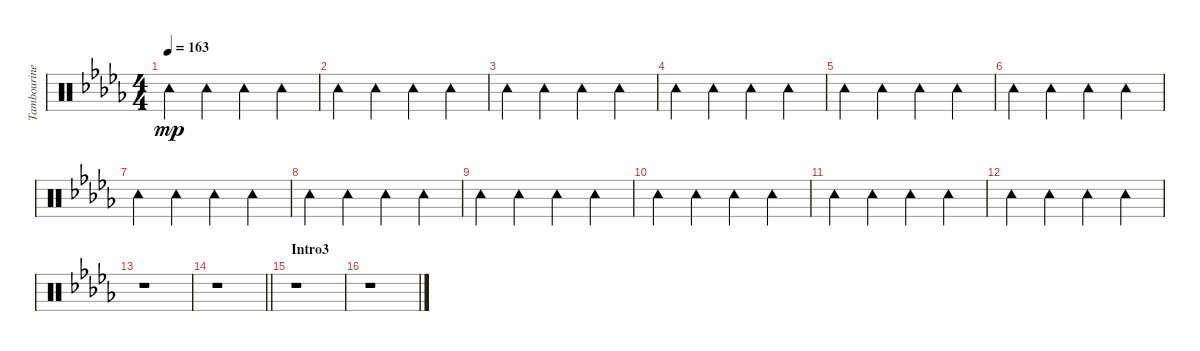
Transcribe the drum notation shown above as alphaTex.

\track ("Tambourine" "Tambourine") {instrument percussion}
\staff {score}
\articulation defaults
\ts (4 4)
\tempo 163
\clef neutral
\ks db "Tambourine (hit)".4{dy mp} "Tambourine (hit)".4 "Tambourine (hit)".4 "Tambourine (hit)".4
|
"Tambourine (hit)".4 "Tambourine (hit)".4 "Tambourine (hit)".4 "Tambourine (hit)".4 |
"Tambourine (hit)".4 "Tambourine (hit)".4 "Tambourine (hit)".4 "Tambourine (hit)".4 |
"Tambourine (hit)".4 "Tambourine (hit)".4 "Tambourine (hit)".4 "Tambourine (hit)".4 |
"Tambourine (hit)".4 "Tambourine (hit)".4 "Tambourine (hit)".4 "Tambourine (hit)".4 |
"Tambourine (hit)".4 "Tambourine (hit)".4 "Tambourine (hit)".4 "Tambourine (hit)".4 |
"Tambourine (hit)".4 "Tambourine (hit)".4 "Tambourine (hit)".4 "Tambourine (hit)".4 |
"Tambourine (hit)".4 "Tambourine (hit)".4 "Tambourine (hit)".4 "Tambourine (hit)".4 |
"Tambourine (hit)".4 "Tambourine (hit)".4 "Tambourine (hit)".4 "Tambourine (hit)".4 |
"Tambourine (hit)".4 "Tambourine (hit)".4 "Tambourine (hit)".4 "Tambourine (hit)".4 |
"Tambourine (hit)".4 "Tambourine (hit)".4 "Tambourine (hit)".4 "Tambourine (hit)".4 |
"Tambourine (hit)".4 "Tambourine (hit)".4 "Tambourine (hit)".4 "Tambourine (hit)".4 |
r.1 |
\barLineRight lightlight
r.1 |
\section ("" "Intro3")
r.1 |
r.1
